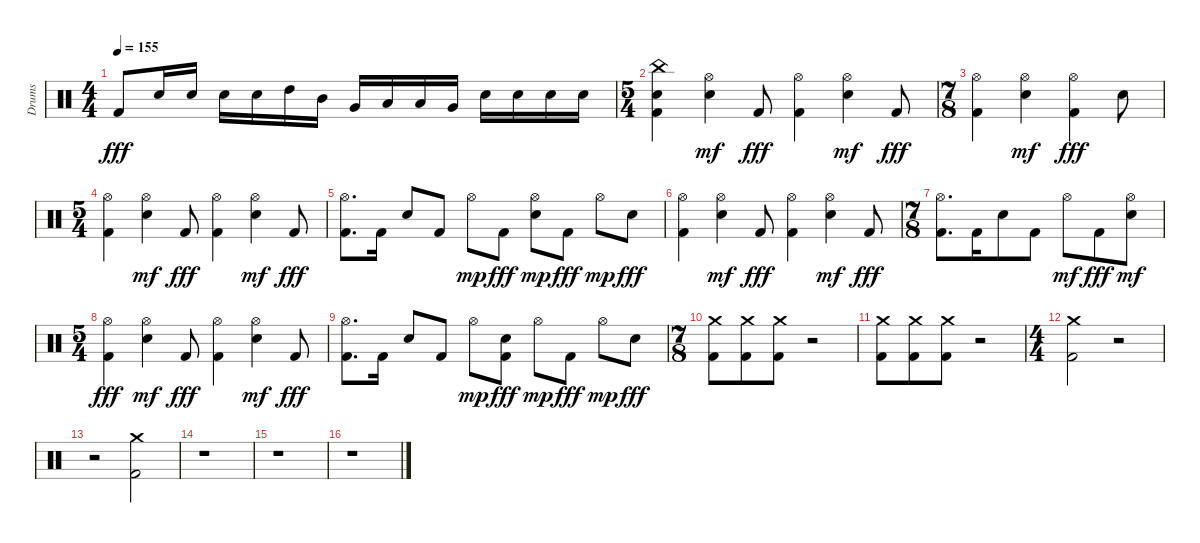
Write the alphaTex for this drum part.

\track ("Drums" "Drums") {instrument percussion}
\staff {score}
\articulation defaults
\ts (4 4)
\tempo 155
\clef neutral
\ks c "Kick (hit) 2".8{dy fff} "Electric Snare (hit)".16 "Electric Snare (hit)".16 "Electric Snare (hit)".16 "Electric Snare (hit)".16 "High Tom (hit)".16 "Mid Tom (hit)".16 "Very Low Tom (hit)".16 "Low Floor Tom (hit)".16 "Low Tom (hit)".16 "Very Low Tom (hit)".16 "Electric Snare (hit)".16 "Electric Snare (hit)".16 "Electric Snare (hit)".16 "Electric Snare (hit)".16
|
\ts (5 4)
("Electric Snare (hit)" "China (hit)" "Kick (hit) 2").4 ("Electric Snare (hit)" "Hi-Hat (open)").4{dy mf} "Kick (hit) 2".8{dy fff} ("Hi-Hat (open)" "Kick (hit) 2").4 ("Electric Snare (hit)" "Hi-Hat (open)").4{dy mf} "Kick (hit) 2".8{dy fff} |
\ts (7 8)
("Hi-Hat (open)" "Kick (hit) 2").4 ("Electric Snare (hit)" "Hi-Hat (open)").4{dy mf} ("Hi-Hat (open)" "Kick (hit) 2").4{dy fff} "Electric Snare (hit)".8 |
\ts (5 4)
("Hi-Hat (open)" "Kick (hit) 2").4 ("Electric Snare (hit)" "Hi-Hat (open)").4{dy mf} "Kick (hit) 2".8{dy fff} ("Hi-Hat (open)" "Kick (hit) 2").4 ("Electric Snare (hit)" "Hi-Hat (open)").4{dy mf} "Kick (hit) 2".8{dy fff} |
("Hi-Hat (open)" "Kick (hit) 2").8{d} "Kick (hit) 2".16 "Electric Snare (hit)".8 "Kick (hit) 2".8 "Hi-Hat (open)".8{dy mp} "Kick (hit) 2".8{dy fff} ("Electric Snare (hit)" "Hi-Hat (open)").8{dy mp} "Kick (hit) 2".8{dy fff} "Hi-Hat (open)".8{dy mp} "Electric Snare (hit)".8{dy fff} |
("Hi-Hat (open)" "Kick (hit) 2").4 ("Electric Snare (hit)" "Hi-Hat (open)").4{dy mf} "Kick (hit) 2".8{dy fff} ("Hi-Hat (open)" "Kick (hit) 2").4 ("Electric Snare (hit)" "Hi-Hat (open)").4{dy mf} "Kick (hit) 2".8{dy fff} |
\ts (7 8)
("Hi-Hat (open)" "Kick (hit) 2").8{d} "Kick (hit) 2".16 "Electric Snare (hit)".8 "Kick (hit) 2".8 "Hi-Hat (open)".8{dy mf} "Kick (hit) 2".8{dy fff} ("Electric Snare (hit)" "Hi-Hat (open)").8{dy mf} |
\ts (5 4)
("Hi-Hat (open)" "Kick (hit) 2").4{dy fff} ("Electric Snare (hit)" "Hi-Hat (open)").4{dy mf} "Kick (hit) 2".8{dy fff} ("Hi-Hat (open)" "Kick (hit) 2").4 ("Electric Snare (hit)" "Hi-Hat (open)").4{dy mf} "Kick (hit) 2".8{dy fff} |
("Hi-Hat (open)" "Kick (hit) 2").8{d} "Kick (hit) 2".16 "Electric Snare (hit)".8 "Kick (hit) 2".8 "Hi-Hat (open)".8{dy mp} ("Electric Snare (hit)" "Kick (hit) 2").8{dy fff} "Hi-Hat (open)".8{dy mp} "Kick (hit) 2".8{dy fff} "Hi-Hat (open)".8{dy mp} "Electric Snare (hit)".8{dy fff} |
\ts (7 8)
("Crash medium (hit)" "Kick (hit) 2").8 ("Crash medium (hit)" "Kick (hit) 2").8 ("Crash medium (hit)" "Kick (hit) 2").8 r.2 |
("Crash medium (hit)" "Kick (hit) 2").8 ("Crash medium (hit)" "Kick (hit) 2").8 ("Crash medium (hit)" "Kick (hit) 2").8 r.2 |
\ts (4 4)
("Crash medium (hit)" "Kick (hit) 2").2 r.2 |
r.2 ("Crash medium (hit)" "Kick (hit) 2").2 |
r.1 |
r.1 |
r.1
